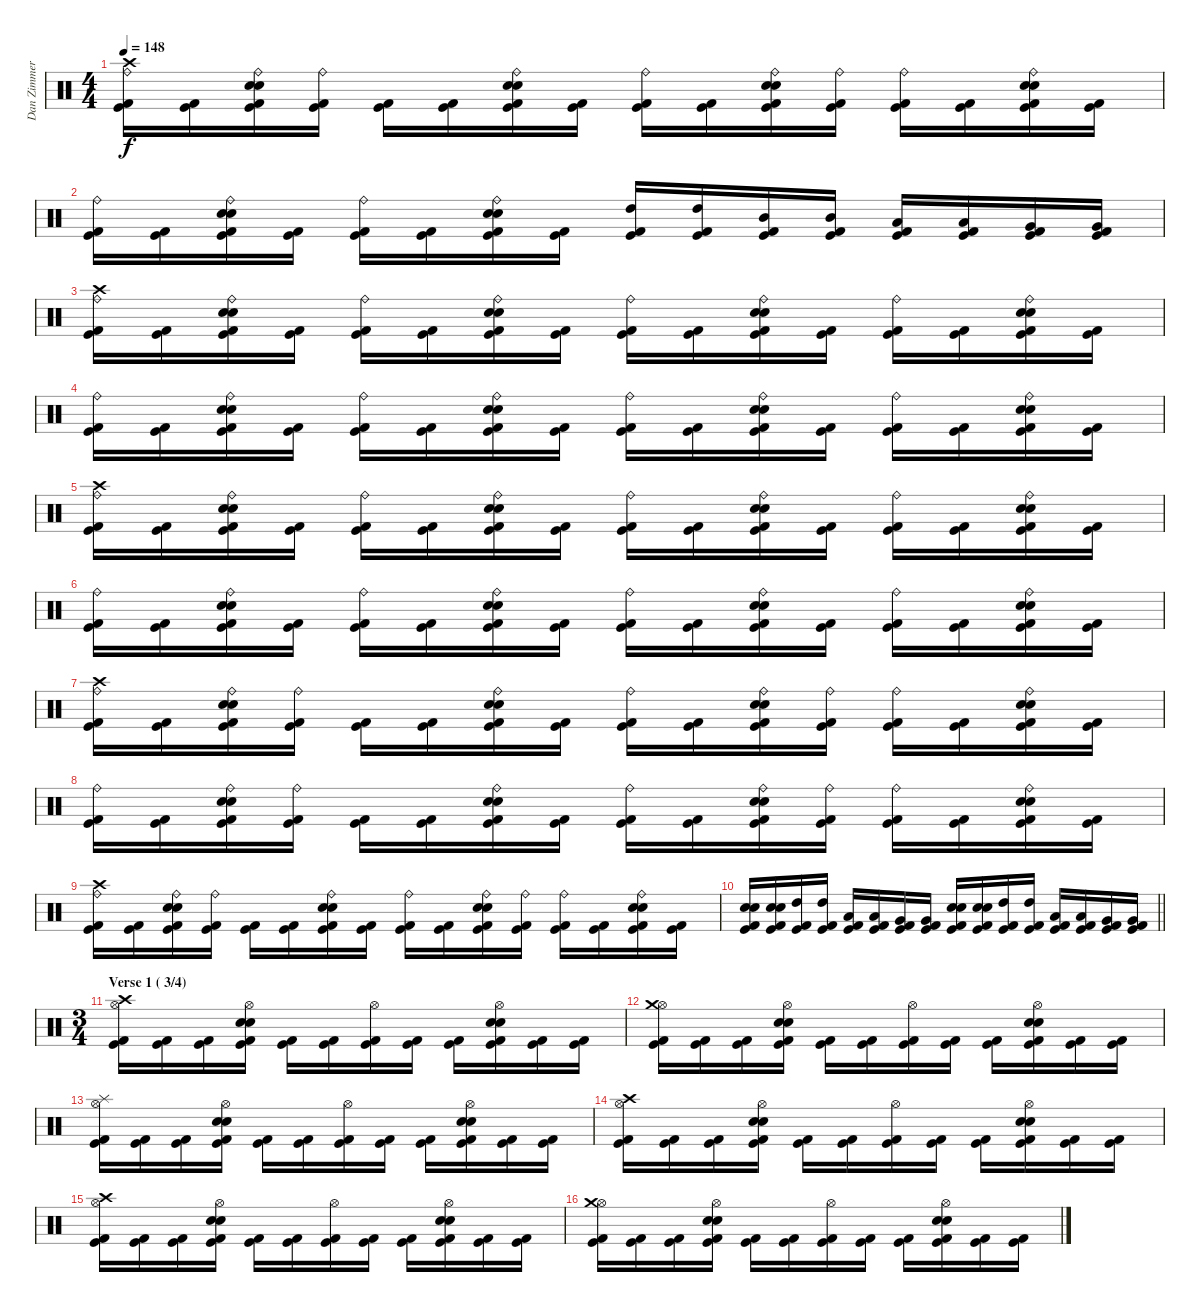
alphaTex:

\track ("Dan Zimmerman<Drum>" "Dan Zimmer") {instrument percussion}
\staff {score}
\articulation defaults
\ts (4 4)
\tempo 148
\clef neutral
\ks c
("Ride (bell)" "Crash high (hit)" "Kick (hit) 2" "Kick (hit)").16{dy f} ("Kick (hit) 2" "Kick (hit)").16 ("Ride (bell)" "Snare (hit) 2" "Electric Snare (hit)" "Kick (hit) 2" "Kick (hit)").16 ("Ride (bell)" "Kick (hit) 2" "Kick (hit)").16 ("Kick (hit) 2" "Kick (hit)").16 ("Kick (hit) 2" "Kick (hit)").16 ("Ride (bell)" "Snare (hit) 2" "Electric Snare (hit)" "Kick (hit) 2" "Kick (hit)").16 ("Kick (hit) 2" "Kick (hit)").16 ("Ride (bell)" "Kick (hit) 2" "Kick (hit)").16 ("Kick (hit) 2" "Kick (hit)").16 ("Ride (bell)" "Snare (hit) 2" "Electric Snare (hit)" "Kick (hit) 2" "Kick (hit)").16 ("Ride (bell)" "Kick (hit) 2" "Kick (hit)").16 ("Ride (bell)" "Kick (hit) 2" "Kick (hit)").16 ("Kick (hit) 2" "Kick (hit)").16 ("Ride (bell)" "Snare (hit) 2" "Electric Snare (hit)" "Kick (hit) 2" "Kick (hit)").16 ("Kick (hit) 2" "Kick (hit)").16 |
("Ride (bell)" "Kick (hit) 2" "Kick (hit)").16 ("Kick (hit) 2" "Kick (hit)").16 ("Ride (bell)" "Snare (hit) 2" "Electric Snare (hit)" "Kick (hit) 2" "Kick (hit)").16 ("Kick (hit) 2" "Kick (hit)").16 ("Ride (bell)" "Kick (hit) 2" "Kick (hit)").16 ("Kick (hit) 2" "Kick (hit)").16 ("Ride (bell)" "Snare (hit) 2" "Electric Snare (hit)" "Kick (hit) 2" "Kick (hit)").16 ("Kick (hit) 2" "Kick (hit)").16 ("High Tom (hit)" "Kick (hit) 2" "Kick (hit)").16 ("High Tom (hit)" "Kick (hit) 2" "Kick (hit)").16 ("Mid Tom (hit)" "Kick (hit) 2" "Kick (hit)").16 ("Mid Tom (hit)" "Kick (hit) 2" "Kick (hit)").16 ("Low Tom (hit)" "Kick (hit) 2" "Kick (hit)").16 ("Low Tom (hit)" "Kick (hit) 2" "Kick (hit)").16 ("Very Low Tom (hit)" "Kick (hit) 2" "Kick (hit)").16 ("Very Low Tom (hit)" "Kick (hit) 2" "Kick (hit)").16 |
("Ride (bell)" "Crash high (hit)" "Kick (hit) 2" "Kick (hit)").16 ("Kick (hit) 2" "Kick (hit)").16 ("Ride (bell)" "Snare (hit) 2" "Electric Snare (hit)" "Kick (hit) 2" "Kick (hit)").16 ("Kick (hit) 2" "Kick (hit)").16 ("Ride (bell)" "Kick (hit) 2" "Kick (hit)").16 ("Kick (hit) 2" "Kick (hit)").16 ("Ride (bell)" "Snare (hit) 2" "Electric Snare (hit)" "Kick (hit) 2" "Kick (hit)").16 ("Kick (hit) 2" "Kick (hit)").16 ("Ride (bell)" "Kick (hit) 2" "Kick (hit)").16 ("Kick (hit) 2" "Kick (hit)").16 ("Ride (bell)" "Snare (hit) 2" "Electric Snare (hit)" "Kick (hit) 2" "Kick (hit)").16 ("Kick (hit) 2" "Kick (hit)").16 ("Ride (bell)" "Kick (hit) 2" "Kick (hit)").16 ("Kick (hit) 2" "Kick (hit)").16 ("Ride (bell)" "Snare (hit) 2" "Electric Snare (hit)" "Kick (hit) 2" "Kick (hit)").16 ("Kick (hit) 2" "Kick (hit)").16 |
("Ride (bell)" "Kick (hit) 2" "Kick (hit)").16 ("Kick (hit) 2" "Kick (hit)").16 ("Ride (bell)" "Snare (hit) 2" "Electric Snare (hit)" "Kick (hit) 2" "Kick (hit)").16 ("Kick (hit) 2" "Kick (hit)").16 ("Ride (bell)" "Kick (hit) 2" "Kick (hit)").16 ("Kick (hit) 2" "Kick (hit)").16 ("Ride (bell)" "Snare (hit) 2" "Electric Snare (hit)" "Kick (hit) 2" "Kick (hit)").16 ("Kick (hit) 2" "Kick (hit)").16 ("Ride (bell)" "Kick (hit) 2" "Kick (hit)").16 ("Kick (hit) 2" "Kick (hit)").16 ("Ride (bell)" "Snare (hit) 2" "Electric Snare (hit)" "Kick (hit) 2" "Kick (hit)").16 ("Kick (hit) 2" "Kick (hit)").16 ("Ride (bell)" "Kick (hit) 2" "Kick (hit)").16 ("Kick (hit) 2" "Kick (hit)").16 ("Ride (bell)" "Snare (hit) 2" "Electric Snare (hit)" "Kick (hit) 2" "Kick (hit)").16 ("Kick (hit) 2" "Kick (hit)").16 |
("Ride (bell)" "Crash high (hit)" "Kick (hit) 2" "Kick (hit)").16 ("Kick (hit) 2" "Kick (hit)").16 ("Ride (bell)" "Snare (hit) 2" "Electric Snare (hit)" "Kick (hit) 2" "Kick (hit)").16 ("Kick (hit) 2" "Kick (hit)").16 ("Ride (bell)" "Kick (hit) 2" "Kick (hit)").16 ("Kick (hit) 2" "Kick (hit)").16 ("Ride (bell)" "Snare (hit) 2" "Electric Snare (hit)" "Kick (hit) 2" "Kick (hit)").16 ("Kick (hit) 2" "Kick (hit)").16 ("Ride (bell)" "Kick (hit) 2" "Kick (hit)").16 ("Kick (hit) 2" "Kick (hit)").16 ("Ride (bell)" "Snare (hit) 2" "Electric Snare (hit)" "Kick (hit) 2" "Kick (hit)").16 ("Kick (hit) 2" "Kick (hit)").16 ("Ride (bell)" "Kick (hit) 2" "Kick (hit)").16 ("Kick (hit) 2" "Kick (hit)").16 ("Ride (bell)" "Snare (hit) 2" "Electric Snare (hit)" "Kick (hit) 2" "Kick (hit)").16 ("Kick (hit) 2" "Kick (hit)").16 |
("Ride (bell)" "Kick (hit) 2" "Kick (hit)").16 ("Kick (hit) 2" "Kick (hit)").16 ("Ride (bell)" "Snare (hit) 2" "Electric Snare (hit)" "Kick (hit) 2" "Kick (hit)").16 ("Kick (hit) 2" "Kick (hit)").16 ("Ride (bell)" "Kick (hit) 2" "Kick (hit)").16 ("Kick (hit) 2" "Kick (hit)").16 ("Ride (bell)" "Snare (hit) 2" "Electric Snare (hit)" "Kick (hit) 2" "Kick (hit)").16 ("Kick (hit) 2" "Kick (hit)").16 ("Ride (bell)" "Kick (hit) 2" "Kick (hit)").16 ("Kick (hit) 2" "Kick (hit)").16 ("Ride (bell)" "Snare (hit) 2" "Electric Snare (hit)" "Kick (hit) 2" "Kick (hit)").16 ("Kick (hit) 2" "Kick (hit)").16 ("Ride (bell)" "Kick (hit) 2" "Kick (hit)").16 ("Kick (hit) 2" "Kick (hit)").16 ("Ride (bell)" "Snare (hit) 2" "Electric Snare (hit)" "Kick (hit) 2" "Kick (hit)").16 ("Kick (hit) 2" "Kick (hit)").16 |
("Ride (bell)" "Crash high (hit)" "Kick (hit) 2" "Kick (hit)").16 ("Kick (hit) 2" "Kick (hit)").16 ("Ride (bell)" "Snare (hit) 2" "Electric Snare (hit)" "Kick (hit) 2" "Kick (hit)").16 ("Ride (bell)" "Kick (hit) 2" "Kick (hit)").16 ("Kick (hit) 2" "Kick (hit)").16 ("Kick (hit) 2" "Kick (hit)").16 ("Ride (bell)" "Snare (hit) 2" "Electric Snare (hit)" "Kick (hit) 2" "Kick (hit)").16 ("Kick (hit) 2" "Kick (hit)").16 ("Ride (bell)" "Kick (hit) 2" "Kick (hit)").16 ("Kick (hit) 2" "Kick (hit)").16 ("Ride (bell)" "Snare (hit) 2" "Electric Snare (hit)" "Kick (hit) 2" "Kick (hit)").16 ("Ride (bell)" "Kick (hit) 2" "Kick (hit)").16 ("Ride (bell)" "Kick (hit) 2" "Kick (hit)").16 ("Kick (hit) 2" "Kick (hit)").16 ("Ride (bell)" "Snare (hit) 2" "Electric Snare (hit)" "Kick (hit) 2" "Kick (hit)").16 ("Kick (hit) 2" "Kick (hit)").16 |
("Ride (bell)" "Kick (hit) 2" "Kick (hit)").16 ("Kick (hit) 2" "Kick (hit)").16 ("Ride (bell)" "Snare (hit) 2" "Electric Snare (hit)" "Kick (hit) 2" "Kick (hit)").16 ("Ride (bell)" "Kick (hit) 2" "Kick (hit)").16 ("Kick (hit) 2" "Kick (hit)").16 ("Kick (hit) 2" "Kick (hit)").16 ("Ride (bell)" "Snare (hit) 2" "Electric Snare (hit)" "Kick (hit) 2" "Kick (hit)").16 ("Kick (hit) 2" "Kick (hit)").16 ("Ride (bell)" "Kick (hit) 2" "Kick (hit)").16 ("Kick (hit) 2" "Kick (hit)").16 ("Ride (bell)" "Snare (hit) 2" "Electric Snare (hit)" "Kick (hit) 2" "Kick (hit)").16 ("Ride (bell)" "Kick (hit) 2" "Kick (hit)").16 ("Ride (bell)" "Kick (hit) 2" "Kick (hit)").16 ("Kick (hit) 2" "Kick (hit)").16 ("Ride (bell)" "Snare (hit) 2" "Electric Snare (hit)" "Kick (hit) 2" "Kick (hit)").16 ("Kick (hit) 2" "Kick (hit)").16 |
("Ride (bell)" "Crash high (hit)" "Kick (hit) 2" "Kick (hit)").16 ("Kick (hit) 2" "Kick (hit)").16 ("Ride (bell)" "Snare (hit) 2" "Electric Snare (hit)" "Kick (hit) 2" "Kick (hit)").16 ("Ride (bell)" "Kick (hit) 2" "Kick (hit)").16 ("Kick (hit) 2" "Kick (hit)").16 ("Kick (hit) 2" "Kick (hit)").16 ("Ride (bell)" "Snare (hit) 2" "Electric Snare (hit)" "Kick (hit) 2" "Kick (hit)").16 ("Kick (hit) 2" "Kick (hit)").16 ("Ride (bell)" "Kick (hit) 2" "Kick (hit)").16 ("Kick (hit) 2" "Kick (hit)").16 ("Ride (bell)" "Snare (hit) 2" "Electric Snare (hit)" "Kick (hit) 2" "Kick (hit)").16 ("Ride (bell)" "Kick (hit) 2" "Kick (hit)").16 ("Ride (bell)" "Kick (hit) 2" "Kick (hit)").16 ("Kick (hit) 2" "Kick (hit)").16 ("Ride (bell)" "Snare (hit) 2" "Electric Snare (hit)" "Kick (hit) 2" "Kick (hit)").16 ("Kick (hit) 2" "Kick (hit)").16 |
\barLineRight lightlight
("Electric Snare (hit)" "Snare (hit) 2" "Kick (hit) 2" "Kick (hit)").16 ("Electric Snare (hit)" "Snare (hit) 2" "Kick (hit) 2" "Kick (hit)").16 ("High Tom (hit)" "Kick (hit) 2" "Kick (hit)").16 ("High Tom (hit)" "Kick (hit) 2" "Kick (hit)").16 ("Low Tom (hit)" "Kick (hit) 2" "Kick (hit)").16 ("Low Tom (hit)" "Kick (hit) 2" "Kick (hit)").16 ("Very Low Tom (hit)" "Kick (hit) 2" "Kick (hit)").16 ("Very Low Tom (hit)" "Kick (hit) 2" "Kick (hit)").16 ("Electric Snare (hit)" "Snare (hit) 2" "Kick (hit) 2" "Kick (hit)").16 ("Electric Snare (hit)" "Snare (hit) 2" "Kick (hit) 2" "Kick (hit)").16 ("High Tom (hit)" "Kick (hit) 2" "Kick (hit)").16 ("High Tom (hit)" "Kick (hit) 2" "Kick (hit)").16 ("Low Tom (hit)" "Kick (hit) 2" "Kick (hit)").16 ("Low Tom (hit)" "Kick (hit) 2" "Kick (hit)").16 ("Very Low Tom (hit)" "Kick (hit) 2" "Kick (hit)").16 ("Very Low Tom (hit)" "Kick (hit) 2" "Kick (hit)").16 |
\ts (3 4)
\section ("" "Verse 1 ( 3/4)")
("Hi-Hat (open)" "Crash high (hit)" "Kick (hit) 2" "Kick (hit)").16 ("Kick (hit) 2" "Kick (hit)").16 ("Kick (hit) 2" "Kick (hit)").16 ("Hi-Hat (open)" "Electric Snare (hit)" "Snare (hit) 2" "Kick (hit) 2" "Kick (hit)").16 ("Kick (hit) 2" "Kick (hit)").16 ("Kick (hit) 2" "Kick (hit)").16 ("Hi-Hat (open)" "Kick (hit) 2" "Kick (hit)").16 ("Kick (hit) 2" "Kick (hit)").16 ("Kick (hit) 2" "Kick (hit)").16 ("Hi-Hat (open)" "Electric Snare (hit)" "Snare (hit) 2" "Kick (hit) 2" "Kick (hit)").16 ("Kick (hit) 2" "Kick (hit)").16 ("Kick (hit) 2" "Kick (hit)").16 |
("Hi-Hat (open)" "Crash medium (hit)" "Kick (hit) 2" "Kick (hit)").16 ("Kick (hit) 2" "Kick (hit)").16 ("Kick (hit) 2" "Kick (hit)").16 ("Hi-Hat (open)" "Electric Snare (hit)" "Snare (hit) 2" "Kick (hit) 2" "Kick (hit)").16 ("Kick (hit) 2" "Kick (hit)").16 ("Kick (hit) 2" "Kick (hit)").16 ("Hi-Hat (open)" "Kick (hit) 2" "Kick (hit)").16 ("Kick (hit) 2" "Kick (hit)").16 ("Kick (hit) 2" "Kick (hit)").16 ("Hi-Hat (open)" "Electric Snare (hit)" "Snare (hit) 2" "Kick (hit) 2" "Kick (hit)").16 ("Kick (hit) 2" "Kick (hit)").16 ("Kick (hit) 2" "Kick (hit)").16 |
("Hi-Hat (open)" "Splash (hit)" "Kick (hit) 2" "Kick (hit)").16 ("Kick (hit) 2" "Kick (hit)").16 ("Kick (hit) 2" "Kick (hit)").16 ("Hi-Hat (open)" "Electric Snare (hit)" "Snare (hit) 2" "Kick (hit) 2" "Kick (hit)").16 ("Kick (hit) 2" "Kick (hit)").16 ("Kick (hit) 2" "Kick (hit)").16 ("Hi-Hat (open)" "Kick (hit) 2" "Kick (hit)").16 ("Kick (hit) 2" "Kick (hit)").16 ("Kick (hit) 2" "Kick (hit)").16 ("Hi-Hat (open)" "Electric Snare (hit)" "Snare (hit) 2" "Kick (hit) 2" "Kick (hit)").16 ("Kick (hit) 2" "Kick (hit)").16 ("Kick (hit) 2" "Kick (hit)").16 |
("Hi-Hat (open)" "Crash high (hit)" "Kick (hit) 2" "Kick (hit)").16 ("Kick (hit) 2" "Kick (hit)").16 ("Kick (hit) 2" "Kick (hit)").16 ("Hi-Hat (open)" "Electric Snare (hit)" "Snare (hit) 2" "Kick (hit) 2" "Kick (hit)").16 ("Kick (hit) 2" "Kick (hit)").16 ("Kick (hit) 2" "Kick (hit)").16 ("Hi-Hat (open)" "Kick (hit) 2" "Kick (hit)").16 ("Kick (hit) 2" "Kick (hit)").16 ("Kick (hit) 2" "Kick (hit)").16 ("Hi-Hat (open)" "Electric Snare (hit)" "Snare (hit) 2" "Kick (hit) 2" "Kick (hit)").16 ("Kick (hit) 2" "Kick (hit)").16 ("Kick (hit) 2" "Kick (hit)").16 |
("Hi-Hat (open)" "Crash high (hit)" "Kick (hit) 2" "Kick (hit)").16 ("Kick (hit) 2" "Kick (hit)").16 ("Kick (hit) 2" "Kick (hit)").16 ("Hi-Hat (open)" "Electric Snare (hit)" "Snare (hit) 2" "Kick (hit) 2" "Kick (hit)").16 ("Kick (hit) 2" "Kick (hit)").16 ("Kick (hit) 2" "Kick (hit)").16 ("Hi-Hat (open)" "Kick (hit) 2" "Kick (hit)").16 ("Kick (hit) 2" "Kick (hit)").16 ("Kick (hit) 2" "Kick (hit)").16 ("Hi-Hat (open)" "Electric Snare (hit)" "Snare (hit) 2" "Kick (hit) 2" "Kick (hit)").16 ("Kick (hit) 2" "Kick (hit)").16 ("Kick (hit) 2" "Kick (hit)").16 |
("Hi-Hat (open)" "Crash medium (hit)" "Kick (hit) 2" "Kick (hit)").16 ("Kick (hit) 2" "Kick (hit)").16 ("Kick (hit) 2" "Kick (hit)").16 ("Hi-Hat (open)" "Electric Snare (hit)" "Snare (hit) 2" "Kick (hit) 2" "Kick (hit)").16 ("Kick (hit) 2" "Kick (hit)").16 ("Kick (hit) 2" "Kick (hit)").16 ("Hi-Hat (open)" "Kick (hit) 2" "Kick (hit)").16 ("Kick (hit) 2" "Kick (hit)").16 ("Kick (hit) 2" "Kick (hit)").16 ("Hi-Hat (open)" "Electric Snare (hit)" "Snare (hit) 2" "Kick (hit) 2" "Kick (hit)").16 ("Kick (hit) 2" "Kick (hit)").16 ("Kick (hit) 2" "Kick (hit)").16
